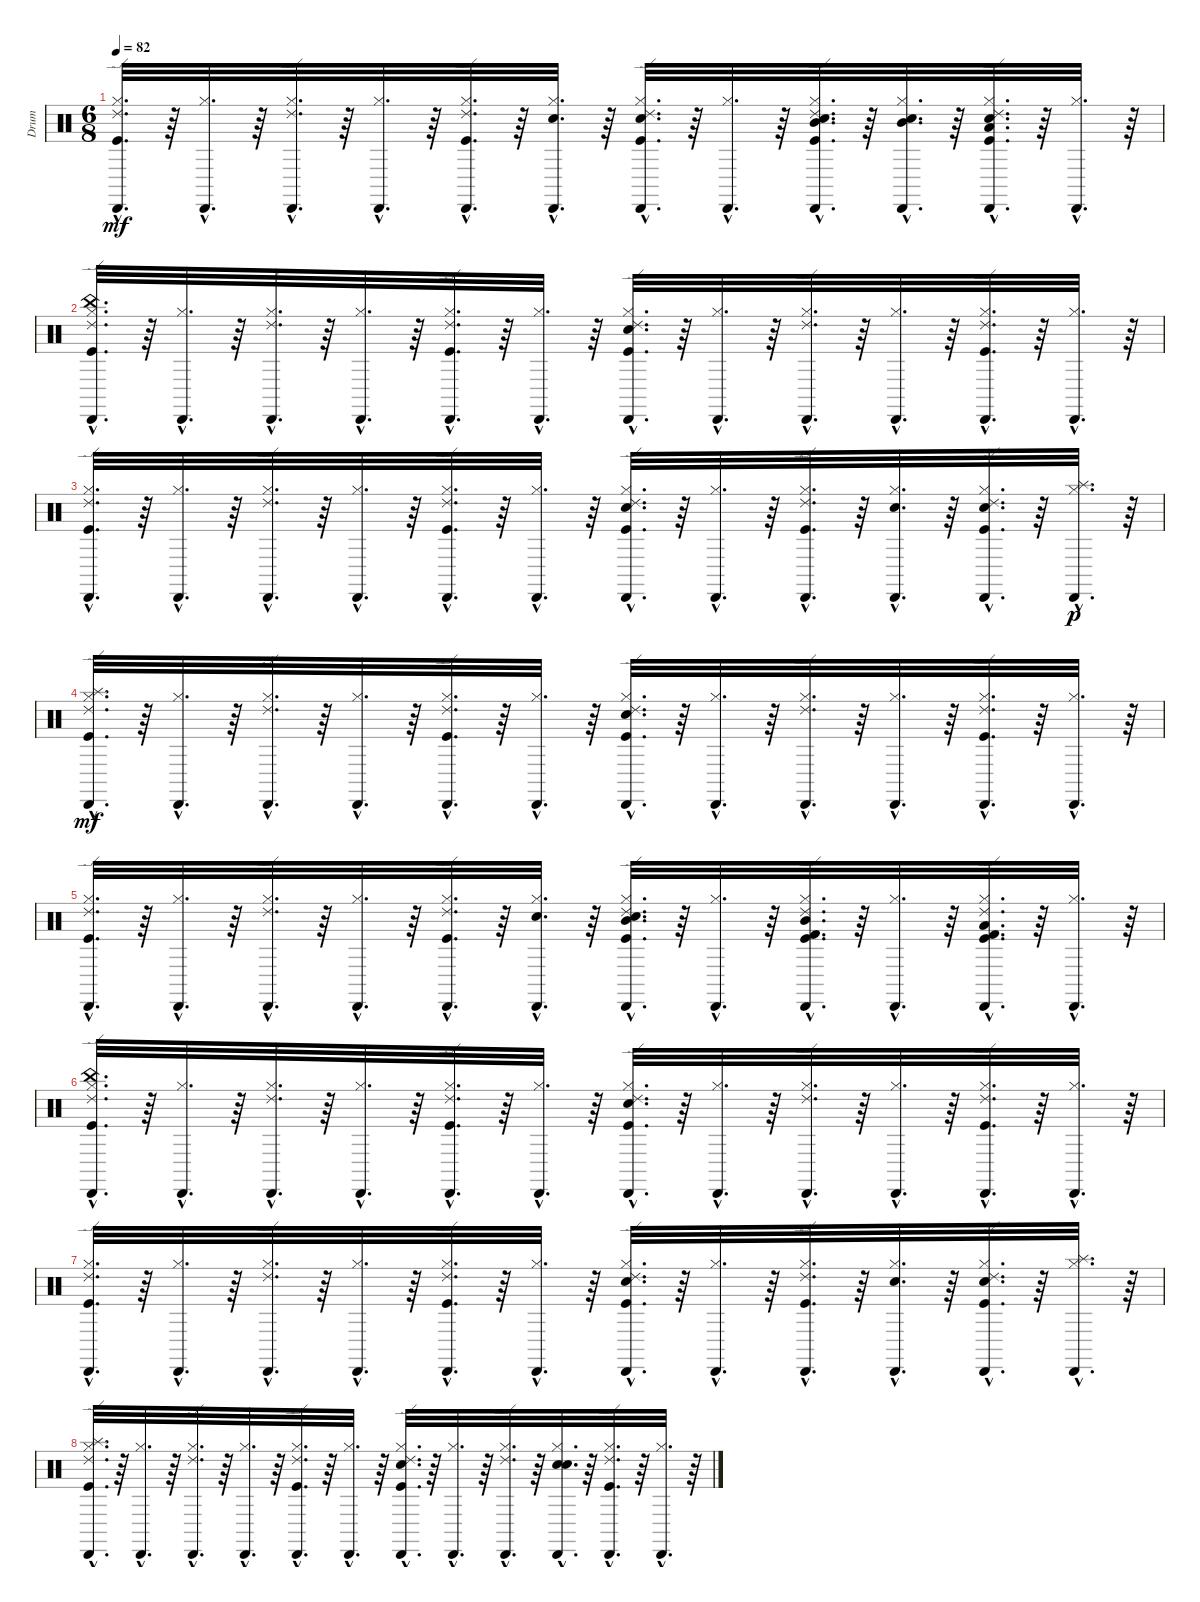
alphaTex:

\track ("Drum" "Drum") {instrument percussion}
\staff {score}
\articulation defaults
\ts (6 8)
\tempo 82
\clef neutral
\ks c
("Cabasa (hit)"{hac} "Ride (edge) 2"{hac} "Hi-Hat (closed)"{hac} "Kick (hit)"{hac}).32{d dy mf} r.64 ("Cabasa (hit)"{hac} "Hi-Hat (closed)"{hac}).32{d} r.64 ("Cabasa (hit)"{hac} "Ride (edge) 2"{hac} "Hi-Hat (closed)"{hac}).32{d} r.64 ("Cabasa (hit)"{hac} "Hi-Hat (closed)"{hac}).32{d} r.64 ("Cabasa (hit)"{hac} "Ride (edge) 2"{hac} "Hi-Hat (closed)"{hac} "Kick (hit)"{hac}).32{d} r.64 ("Cabasa (hit)"{hac} "Hi-Hat (closed)"{hac} "Snare (hit) 2"{hac}).32{d} r.64 ("Cabasa (hit)"{hac} "Ride (edge) 2"{hac} "Hi-Hat (closed)"{hac} "Snare (hit) 2"{hac} "Kick (hit)"{hac}).32{d} r.64 ("Cabasa (hit)"{hac} "Hi-Hat (closed)"{hac}).32{d} r.64 ("Cabasa (hit)"{hac} "Ride (edge) 2"{hac} "Mid Tom (hit)"{hac} "Electric Snare (hit)"{hac} "Hi-Hat (closed)"{hac} "Kick (hit)"{hac}).32{d} r.64 ("Cabasa (hit)"{hac} "Mid Tom (hit)"{hac} "Electric Snare (hit)"{hac} "Hi-Hat (closed)"{hac}).32{d} r.64 ("Cabasa (hit)"{hac} "Ride (edge) 2"{hac} "Low Tom (hit)"{hac} "Electric Snare (hit)"{hac} "Hi-Hat (closed)"{hac} "Kick (hit)"{hac}).32{d} r.64 ("Cabasa (hit)"{hac} "Hi-Hat (closed)"{hac}).32{d} r.64 |
("Hi-Hat (closed)"{hac} "Kick (hit)"{hac} "China (hit)"{hac} "Ride (edge) 2"{hac} "Cabasa (hit)"{hac}).32{d} r.64 ("Hi-Hat (closed)"{hac} "Cabasa (hit)"{hac}).32{d} r.64 ("Hi-Hat (closed)"{hac} "Ride (edge) 2"{hac} "Cabasa (hit)"{hac}).32{d} r.64 ("Hi-Hat (closed)"{hac} "Cabasa (hit)"{hac}).32{d} r.64 ("Hi-Hat (closed)"{hac} "Kick (hit)"{hac} "Ride (edge) 2"{hac} "Cabasa (hit)"{hac}).32{d} r.64 ("Hi-Hat (closed)"{hac} "Cabasa (hit)"{hac}).32{d} r.64 ("Hi-Hat (closed)"{hac} "Snare (hit) 2"{hac} "Kick (hit)"{hac} "Ride (edge) 2"{hac} "Cabasa (hit)"{hac}).32{d} r.64 ("Hi-Hat (closed)"{hac} "Cabasa (hit)"{hac}).32{d} r.64 ("Hi-Hat (closed)"{hac} "Ride (edge) 2"{hac} "Cabasa (hit)"{hac}).32{d} r.64 ("Hi-Hat (closed)"{hac} "Cabasa (hit)"{hac}).32{d} r.64 ("Hi-Hat (closed)"{hac} "Kick (hit)"{hac} "Ride (edge) 2"{hac} "Cabasa (hit)"{hac}).32{d} r.64 ("Hi-Hat (closed)"{hac} "Cabasa (hit)"{hac}).32{d} r.64 |
("Hi-Hat (closed)"{hac} "Kick (hit)"{hac} "Ride (edge) 2"{hac} "Cabasa (hit)"{hac}).32{d} r.64 ("Hi-Hat (closed)"{hac} "Cabasa (hit)"{hac}).32{d} r.64 ("Hi-Hat (closed)"{hac} "Ride (edge) 2"{hac} "Cabasa (hit)"{hac}).32{d} r.64 ("Hi-Hat (closed)"{hac} "Cabasa (hit)"{hac}).32{d} r.64 ("Hi-Hat (closed)"{hac} "Kick (hit)"{hac} "Ride (edge) 2"{hac} "Cabasa (hit)"{hac}).32{d} r.64 ("Hi-Hat (closed)"{hac} "Cabasa (hit)"{hac}).32{d} r.64 ("Hi-Hat (closed)"{hac} "Snare (hit) 2"{hac} "Kick (hit)"{hac} "Ride (edge) 2"{hac} "Cabasa (hit)"{hac}).32{d} r.64 ("Hi-Hat (closed)"{hac} "Cabasa (hit)"{hac}).32{d} r.64 ("Hi-Hat (closed)"{hac} "Kick (hit)"{hac} "Ride (edge) 2"{hac} "Cabasa (hit)"{hac}).32{d} r.64 ("Hi-Hat (closed)"{hac} "Snare (hit) 2"{hac} "Cabasa (hit)"{hac}).32{d} r.64 ("Hi-Hat (closed)"{hac} "Snare (hit) 2"{hac} "Kick (hit)"{hac} "Ride (edge) 2"{hac} "Cabasa (hit)"{hac}).32{d} r.64 ("Hi-Hat (closed)"{hac} "Splash (hit)"{hac} "Cabasa (hit)"{hac}).32{d dy p} r.64 |
("Cabasa (hit)"{hac} "Ride (edge) 2"{hac} "Splash (hit)"{hac} "Kick (hit)"{hac} "Hi-Hat (closed)"{hac}).32{d dy mf} r.64 ("Cabasa (hit)"{hac} "Hi-Hat (closed)"{hac}).32{d} r.64 ("Cabasa (hit)"{hac} "Ride (edge) 2"{hac} "Hi-Hat (closed)"{hac}).32{d} r.64 ("Cabasa (hit)"{hac} "Hi-Hat (closed)"{hac}).32{d} r.64 ("Cabasa (hit)"{hac} "Ride (edge) 2"{hac} "Kick (hit)"{hac} "Hi-Hat (closed)"{hac}).32{d} r.64 ("Cabasa (hit)"{hac} "Hi-Hat (closed)"{hac}).32{d} r.64 ("Cabasa (hit)"{hac} "Ride (edge) 2"{hac} "Kick (hit)"{hac} "Snare (hit) 2"{hac} "Hi-Hat (closed)"{hac}).32{d} r.64 ("Cabasa (hit)"{hac} "Hi-Hat (closed)"{hac}).32{d} r.64 ("Cabasa (hit)"{hac} "Ride (edge) 2"{hac} "Hi-Hat (closed)"{hac}).32{d} r.64 ("Cabasa (hit)"{hac} "Hi-Hat (closed)"{hac}).32{d} r.64 ("Cabasa (hit)"{hac} "Ride (edge) 2"{hac} "Kick (hit)"{hac} "Hi-Hat (closed)"{hac}).32{d} r.64 ("Cabasa (hit)"{hac} "Hi-Hat (closed)"{hac}).32{d} r.64 |
("Kick (hit)"{hac} "Cabasa (hit)"{hac} "Ride (edge) 2"{hac} "Hi-Hat (closed)"{hac}).32{d} r.64 ("Cabasa (hit)"{hac} "Hi-Hat (closed)"{hac}).32{d} r.64 ("Cabasa (hit)"{hac} "Ride (edge) 2"{hac} "Hi-Hat (closed)"{hac}).32{d} r.64 ("Cabasa (hit)"{hac} "Hi-Hat (closed)"{hac}).32{d} r.64 ("Ride (edge) 2"{hac} "Kick (hit)"{hac} "Cabasa (hit)"{hac} "Hi-Hat (closed)"{hac}).32{d} r.64 ("Snare (hit) 2"{hac} "Hi-Hat (closed)"{hac} "Cabasa (hit)"{hac}).32{d} r.64 ("Snare (hit) 2"{hac} "Mid Tom (hit)"{hac} "Kick (hit)"{hac} "Hi-Hat (closed)"{hac} "Cabasa (hit)"{hac} "Ride (edge) 2"{hac}).32{d} r.64 ("Hi-Hat (closed)"{hac} "Cabasa (hit)"{hac}).32{d} r.64 ("Kick (hit)"{hac} "Mid Tom (hit)"{hac} "Hi-Hat (closed)"{hac} "Ride (edge) 2"{hac} "Cabasa (hit)"{hac} "Kick (hit) 2"{hac}).32{d} r.64 ("Cabasa (hit)"{hac} "Hi-Hat (closed)"{hac}).32{d} r.64 ("Kick (hit)"{hac} "Kick (hit) 2"{hac} "Low Tom (hit)"{hac} "Ride (edge) 2"{hac} "Cabasa (hit)"{hac} "Hi-Hat (closed)"{hac}).32{d} r.64 ("Cabasa (hit)"{hac} "Hi-Hat (closed)"{hac}).32{d} r.64 |
("Cabasa (hit)"{hac} "Ride (edge) 2"{hac} "China (hit)"{hac} "Kick (hit)"{hac} "Hi-Hat (closed)"{hac}).32{d} r.64 ("Cabasa (hit)"{hac} "Hi-Hat (closed)"{hac}).32{d} r.64 ("Cabasa (hit)"{hac} "Ride (edge) 2"{hac} "Hi-Hat (closed)"{hac}).32{d} r.64 ("Cabasa (hit)"{hac} "Hi-Hat (closed)"{hac}).32{d} r.64 ("Cabasa (hit)"{hac} "Ride (edge) 2"{hac} "Kick (hit)"{hac} "Hi-Hat (closed)"{hac}).32{d} r.64 ("Cabasa (hit)"{hac} "Hi-Hat (closed)"{hac}).32{d} r.64 ("Cabasa (hit)"{hac} "Ride (edge) 2"{hac} "Kick (hit)"{hac} "Snare (hit) 2"{hac} "Hi-Hat (closed)"{hac}).32{d} r.64 ("Cabasa (hit)"{hac} "Hi-Hat (closed)"{hac}).32{d} r.64 ("Cabasa (hit)"{hac} "Ride (edge) 2"{hac} "Hi-Hat (closed)"{hac}).32{d} r.64 ("Cabasa (hit)"{hac} "Hi-Hat (closed)"{hac}).32{d} r.64 ("Cabasa (hit)"{hac} "Ride (edge) 2"{hac} "Kick (hit)"{hac} "Hi-Hat (closed)"{hac}).32{d} r.64 ("Cabasa (hit)"{hac} "Hi-Hat (closed)"{hac}).32{d} r.64 |
("Cabasa (hit)"{hac} "Ride (edge) 2"{hac} "Kick (hit)"{hac} "Hi-Hat (closed)"{hac}).32{d} r.64 ("Cabasa (hit)"{hac} "Hi-Hat (closed)"{hac}).32{d} r.64 ("Cabasa (hit)"{hac} "Ride (edge) 2"{hac} "Hi-Hat (closed)"{hac}).32{d} r.64 ("Cabasa (hit)"{hac} "Hi-Hat (closed)"{hac}).32{d} r.64 ("Cabasa (hit)"{hac} "Ride (edge) 2"{hac} "Kick (hit)"{hac} "Hi-Hat (closed)"{hac}).32{d} r.64 ("Cabasa (hit)"{hac} "Hi-Hat (closed)"{hac}).32{d} r.64 ("Cabasa (hit)"{hac} "Ride (edge) 2"{hac} "Kick (hit)"{hac} "Snare (hit) 2"{hac} "Hi-Hat (closed)"{hac}).32{d} r.64 ("Cabasa (hit)"{hac} "Hi-Hat (closed)"{hac}).32{d} r.64 ("Cabasa (hit)"{hac} "Ride (edge) 2"{hac} "Kick (hit)"{hac} "Hi-Hat (closed)"{hac}).32{d} r.64 ("Cabasa (hit)"{hac} "Snare (hit) 2"{hac} "Hi-Hat (closed)"{hac}).32{d} r.64 ("Cabasa (hit)"{hac} "Ride (edge) 2"{hac} "Kick (hit)"{hac} "Snare (hit) 2"{hac} "Hi-Hat (closed)"{hac}).32{d} r.64 ("Cabasa (hit)"{hac} "Splash (hit)"{hac} "Hi-Hat (closed)"{hac}).32{d} r.64 |
("Cabasa (hit)"{hac} "Ride (edge) 2"{hac} "Splash (hit)"{hac} "Hi-Hat (closed)"{hac} "Kick (hit)"{hac}).32{d} r.64 ("Cabasa (hit)"{hac} "Hi-Hat (closed)"{hac}).32{d} r.64 ("Cabasa (hit)"{hac} "Ride (edge) 2"{hac} "Hi-Hat (closed)"{hac}).32{d} r.64 ("Cabasa (hit)"{hac} "Hi-Hat (closed)"{hac}).32{d} r.64 ("Cabasa (hit)"{hac} "Ride (edge) 2"{hac} "Hi-Hat (closed)"{hac} "Kick (hit)"{hac}).32{d} r.64 ("Cabasa (hit)"{hac} "Hi-Hat (closed)"{hac}).32{d} r.64 ("Cabasa (hit)"{hac} "Ride (edge) 2"{hac} "Hi-Hat (closed)"{hac} "Snare (hit) 2"{hac} "Kick (hit)"{hac}).32{d} r.64 ("Cabasa (hit)"{hac} "Hi-Hat (closed)"{hac}).32{d} r.64 ("Cabasa (hit)"{hac} "Ride (edge) 2"{hac} "Hi-Hat (closed)"{hac}).32{d} r.64 ("Electric Snare (hit)"{hac} "Cabasa (hit)"{hac} "Snare (hit) 2"{hac} "Hi-Hat (closed)"{hac}).32{d} r.64 ("Cabasa (hit)"{hac} "Ride (edge) 2"{hac} "Hi-Hat (closed)"{hac} "Kick (hit)"{hac}).32{d} r.64 ("Cabasa (hit)"{hac} "Hi-Hat (closed)"{hac}).32{d} r.64
